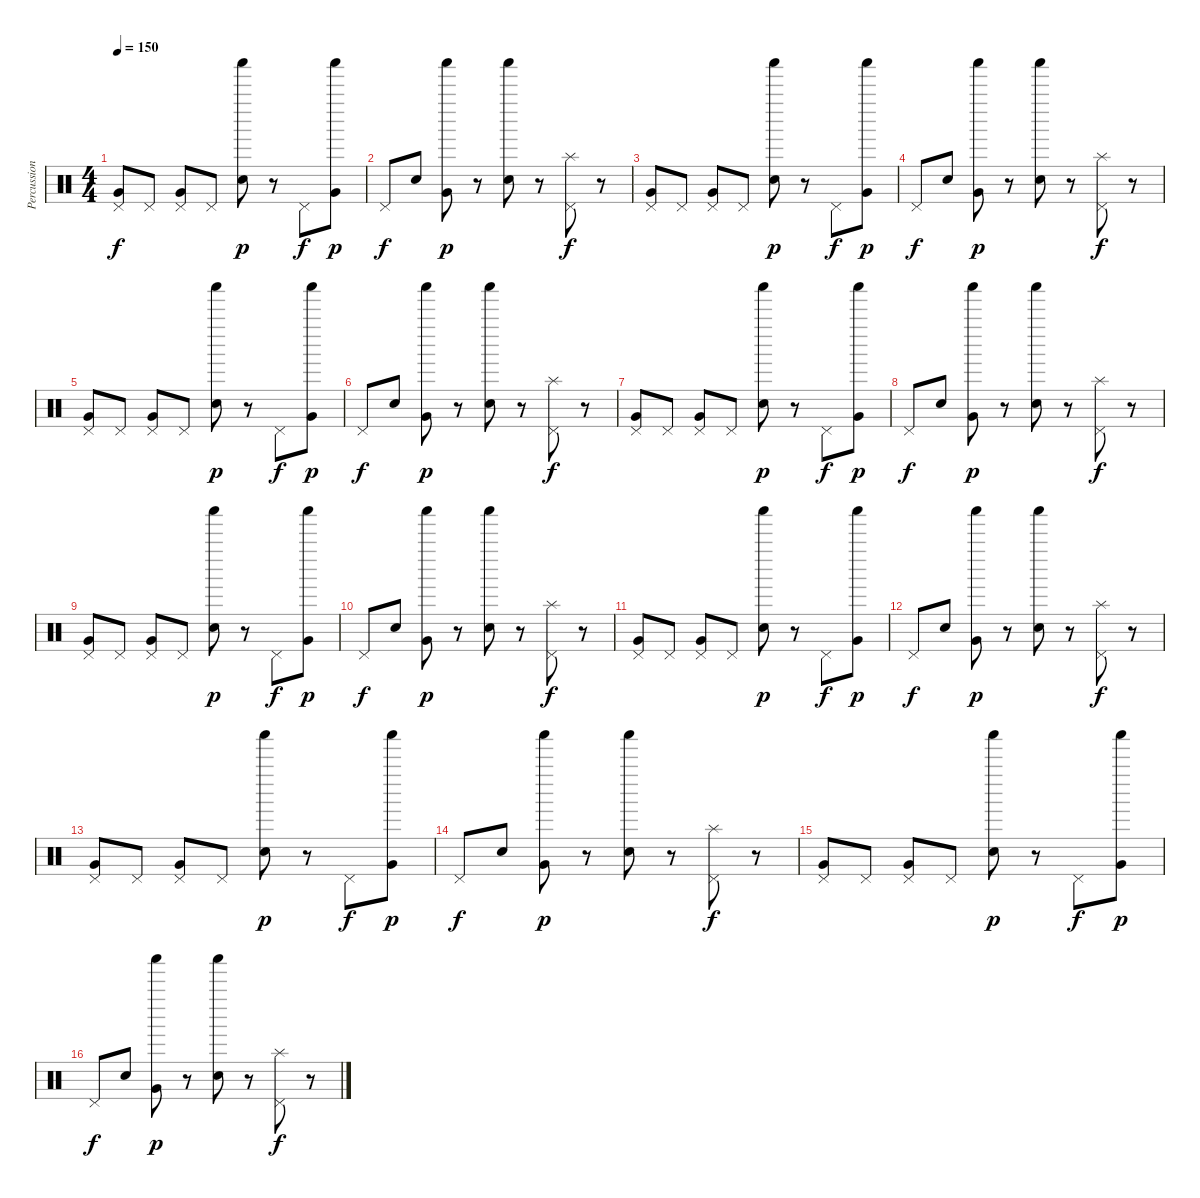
\track ("Percussion" "Percussion") {instrument percussion}
\staff {score}
\articulation defaults
\ts (4 4)
\tempo 150
\clef neutral
\ks c
("Very Low Tom (hit)" "Pedal Hi-Hat (hit)").8{dy f} "Pedal Hi-Hat (hit)".8 ("Very Low Tom (hit)" "Pedal Hi-Hat (hit)").8 "Pedal Hi-Hat (hit)".8 ("Snare (hit) 2" "Shaker (hit)").8{dy p} r.8 "Pedal Hi-Hat (hit)".8{dy f} ("Very Low Tom (hit)" "Shaker (hit)").8{dy p} |
"Pedal Hi-Hat (hit)".8{dy f} "Snare (hit) 2".8 ("Very Low Tom (hit)" "Shaker (hit)").8{dy p} r.8 ("Snare (hit) 2" "Shaker (hit)").8 r.8 ("Pedal Hi-Hat (hit)" "Splash (hit)").8{dy f} r.8 |
("Very Low Tom (hit)" "Pedal Hi-Hat (hit)").8 "Pedal Hi-Hat (hit)".8 ("Very Low Tom (hit)" "Pedal Hi-Hat (hit)").8 "Pedal Hi-Hat (hit)".8 ("Snare (hit) 2" "Shaker (hit)").8{dy p} r.8 "Pedal Hi-Hat (hit)".8{dy f} ("Very Low Tom (hit)" "Shaker (hit)").8{dy p} |
"Pedal Hi-Hat (hit)".8{dy f} "Snare (hit) 2".8 ("Very Low Tom (hit)" "Shaker (hit)").8{dy p} r.8 ("Snare (hit) 2" "Shaker (hit)").8 r.8 ("Pedal Hi-Hat (hit)" "Splash (hit)").8{dy f} r.8 |
("Very Low Tom (hit)" "Pedal Hi-Hat (hit)").8 "Pedal Hi-Hat (hit)".8 ("Very Low Tom (hit)" "Pedal Hi-Hat (hit)").8 "Pedal Hi-Hat (hit)".8 ("Snare (hit) 2" "Shaker (hit)").8{dy p} r.8 "Pedal Hi-Hat (hit)".8{dy f} ("Very Low Tom (hit)" "Shaker (hit)").8{dy p} |
"Pedal Hi-Hat (hit)".8{dy f} "Snare (hit) 2".8 ("Very Low Tom (hit)" "Shaker (hit)").8{dy p} r.8 ("Snare (hit) 2" "Shaker (hit)").8 r.8 ("Pedal Hi-Hat (hit)" "Splash (hit)").8{dy f} r.8 |
("Very Low Tom (hit)" "Pedal Hi-Hat (hit)").8 "Pedal Hi-Hat (hit)".8 ("Very Low Tom (hit)" "Pedal Hi-Hat (hit)").8 "Pedal Hi-Hat (hit)".8 ("Snare (hit) 2" "Shaker (hit)").8{dy p} r.8 "Pedal Hi-Hat (hit)".8{dy f} ("Very Low Tom (hit)" "Shaker (hit)").8{dy p} |
"Pedal Hi-Hat (hit)".8{dy f} "Snare (hit) 2".8 ("Very Low Tom (hit)" "Shaker (hit)").8{dy p} r.8 ("Snare (hit) 2" "Shaker (hit)").8 r.8 ("Pedal Hi-Hat (hit)" "Splash (hit)").8{dy f} r.8 |
("Very Low Tom (hit)" "Pedal Hi-Hat (hit)").8 "Pedal Hi-Hat (hit)".8 ("Very Low Tom (hit)" "Pedal Hi-Hat (hit)").8 "Pedal Hi-Hat (hit)".8 ("Snare (hit) 2" "Shaker (hit)").8{dy p} r.8 "Pedal Hi-Hat (hit)".8{dy f} ("Very Low Tom (hit)" "Shaker (hit)").8{dy p} |
"Pedal Hi-Hat (hit)".8{dy f} "Snare (hit) 2".8 ("Very Low Tom (hit)" "Shaker (hit)").8{dy p} r.8 ("Snare (hit) 2" "Shaker (hit)").8 r.8 ("Pedal Hi-Hat (hit)" "Splash (hit)").8{dy f} r.8 |
("Very Low Tom (hit)" "Pedal Hi-Hat (hit)").8 "Pedal Hi-Hat (hit)".8 ("Very Low Tom (hit)" "Pedal Hi-Hat (hit)").8 "Pedal Hi-Hat (hit)".8 ("Snare (hit) 2" "Shaker (hit)").8{dy p} r.8 "Pedal Hi-Hat (hit)".8{dy f} ("Very Low Tom (hit)" "Shaker (hit)").8{dy p} |
"Pedal Hi-Hat (hit)".8{dy f} "Snare (hit) 2".8 ("Very Low Tom (hit)" "Shaker (hit)").8{dy p} r.8 ("Snare (hit) 2" "Shaker (hit)").8 r.8 ("Pedal Hi-Hat (hit)" "Splash (hit)").8{dy f} r.8 |
("Very Low Tom (hit)" "Pedal Hi-Hat (hit)").8 "Pedal Hi-Hat (hit)".8 ("Very Low Tom (hit)" "Pedal Hi-Hat (hit)").8 "Pedal Hi-Hat (hit)".8 ("Snare (hit) 2" "Shaker (hit)").8{dy p} r.8 "Pedal Hi-Hat (hit)".8{dy f} ("Very Low Tom (hit)" "Shaker (hit)").8{dy p} |
"Pedal Hi-Hat (hit)".8{dy f} "Snare (hit) 2".8 ("Very Low Tom (hit)" "Shaker (hit)").8{dy p} r.8 ("Snare (hit) 2" "Shaker (hit)").8 r.8 ("Pedal Hi-Hat (hit)" "Splash (hit)").8{dy f} r.8 |
("Very Low Tom (hit)" "Pedal Hi-Hat (hit)").8 "Pedal Hi-Hat (hit)".8 ("Very Low Tom (hit)" "Pedal Hi-Hat (hit)").8 "Pedal Hi-Hat (hit)".8 ("Snare (hit) 2" "Shaker (hit)").8{dy p} r.8 "Pedal Hi-Hat (hit)".8{dy f} ("Very Low Tom (hit)" "Shaker (hit)").8{dy p} |
"Pedal Hi-Hat (hit)".8{dy f} "Snare (hit) 2".8 ("Very Low Tom (hit)" "Shaker (hit)").8{dy p} r.8 ("Snare (hit) 2" "Shaker (hit)").8 r.8 ("Pedal Hi-Hat (hit)" "Splash (hit)").8{dy f} r.8
